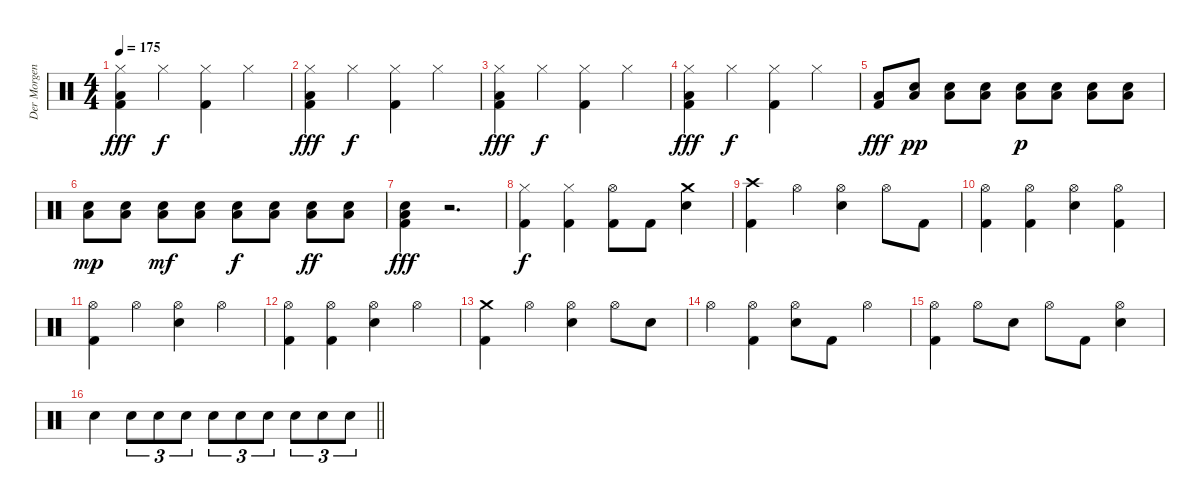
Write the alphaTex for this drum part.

\track ("Der Morgenstern" "Der Morgen") {instrument percussion}
\staff {score}
\articulation defaults
\ts (4 4)
\tempo 175
\clef neutral
\ks c
("Hi-Hat (closed)" "Low Floor Tom (hit)" "Kick (hit) 2").4{dy fff} "Hi-Hat (closed)".4{dy f} ("Hi-Hat (closed)" "Kick (hit) 2").4 "Hi-Hat (closed)".4 |
("Hi-Hat (closed)" "Low Floor Tom (hit)" "Kick (hit) 2").4{dy fff} "Hi-Hat (closed)".4{dy f} ("Hi-Hat (closed)" "Kick (hit) 2").4 "Hi-Hat (closed)".4 |
("Hi-Hat (closed)" "Low Floor Tom (hit)" "Kick (hit) 2").4{dy fff} "Hi-Hat (closed)".4{dy f} ("Hi-Hat (closed)" "Kick (hit) 2").4 "Hi-Hat (closed)".4 |
("Hi-Hat (closed)" "Low Floor Tom (hit)" "Kick (hit) 2").4{dy fff} "Hi-Hat (closed)".4{dy f} ("Hi-Hat (closed)" "Kick (hit) 2").4 "Hi-Hat (closed)".4 |
("Low Floor Tom (hit)" "Kick (hit) 2").8{dy fff} ("Low Floor Tom (hit)" "Electric Snare (hit)").8{dy pp} ("Low Floor Tom (hit)" "Electric Snare (hit)").8 ("Low Floor Tom (hit)" "Electric Snare (hit)").8 ("Low Floor Tom (hit)" "Electric Snare (hit)").8{dy p} ("Low Floor Tom (hit)" "Electric Snare (hit)").8 ("Low Floor Tom (hit)" "Electric Snare (hit)").8 ("Low Floor Tom (hit)" "Electric Snare (hit)").8 |
("Low Floor Tom (hit)" "Electric Snare (hit)").8{dy mp} ("Low Floor Tom (hit)" "Electric Snare (hit)").8 ("Low Floor Tom (hit)" "Electric Snare (hit)").8{dy mf} ("Low Floor Tom (hit)" "Electric Snare (hit)").8 ("Low Floor Tom (hit)" "Electric Snare (hit)").8{dy f} ("Low Floor Tom (hit)" "Electric Snare (hit)").8 ("Low Floor Tom (hit)" "Electric Snare (hit)").8{dy ff} ("Low Floor Tom (hit)" "Electric Snare (hit)").8 |
("Low Floor Tom (hit)" "Electric Snare (hit)" "Kick (hit) 2").4{dy fff} r.2{d} |
("Hi-Hat (closed)" "Kick (hit) 2").4{dy f} ("Hi-Hat (closed)" "Kick (hit) 2").4 ("Hi-Hat (open)" "Kick (hit) 2").8 "Kick (hit) 2".8 ("Crash medium (hit)" "Electric Snare (hit)").4 |
("Crash high (hit)" "Kick (hit) 2").4 "Hi-Hat (open)".4 ("Hi-Hat (open)" "Electric Snare (hit)").4 "Hi-Hat (open)".8 "Kick (hit) 2".8 |
("Hi-Hat (open)" "Kick (hit) 2").4 ("Hi-Hat (open)" "Kick (hit) 2").4 ("Hi-Hat (open)" "Electric Snare (hit)").4 ("Hi-Hat (open)" "Kick (hit) 2").4 |
("Hi-Hat (open)" "Kick (hit) 2").4 "Hi-Hat (open)".4 ("Hi-Hat (open)" "Electric Snare (hit)").4 "Hi-Hat (open)".4 |
("Hi-Hat (open)" "Kick (hit) 2").4 ("Hi-Hat (open)" "Kick (hit) 2").4 ("Hi-Hat (open)" "Electric Snare (hit)").4 "Hi-Hat (open)".4 |
("Crash medium (hit)" "Kick (hit) 2").4 "Hi-Hat (open)".4 ("Hi-Hat (open)" "Electric Snare (hit)").4 "Hi-Hat (open)".8 "Electric Snare (hit)".8 |
"Hi-Hat (open)".4 ("Hi-Hat (open)" "Kick (hit) 2").4 ("Hi-Hat (open)" "Electric Snare (hit)").8 "Kick (hit) 2".8 "Hi-Hat (open)".4 |
("Hi-Hat (open)" "Kick (hit) 2").4 "Hi-Hat (open)".8 "Electric Snare (hit)".8 "Hi-Hat (open)".8 "Kick (hit) 2".8 ("Hi-Hat (open)" "Electric Snare (hit)").4 |
\barLineRight lightlight "Electric Snare (hit)".4 "Electric Snare (hit)".8{tu (3 2)} "Electric Snare (hit)".8{tu (3 2)} "Electric Snare (hit)".8{tu (3 2)} "Electric Snare (hit)".8{tu (3 2)} "Electric Snare (hit)".8{tu (3 2)} "Electric Snare (hit)".8{tu (3 2)} "Electric Snare (hit)".8{tu (3 2)} "Electric Snare (hit)".8{tu (3 2)} "Electric Snare (hit)".8{tu (3 2)}
